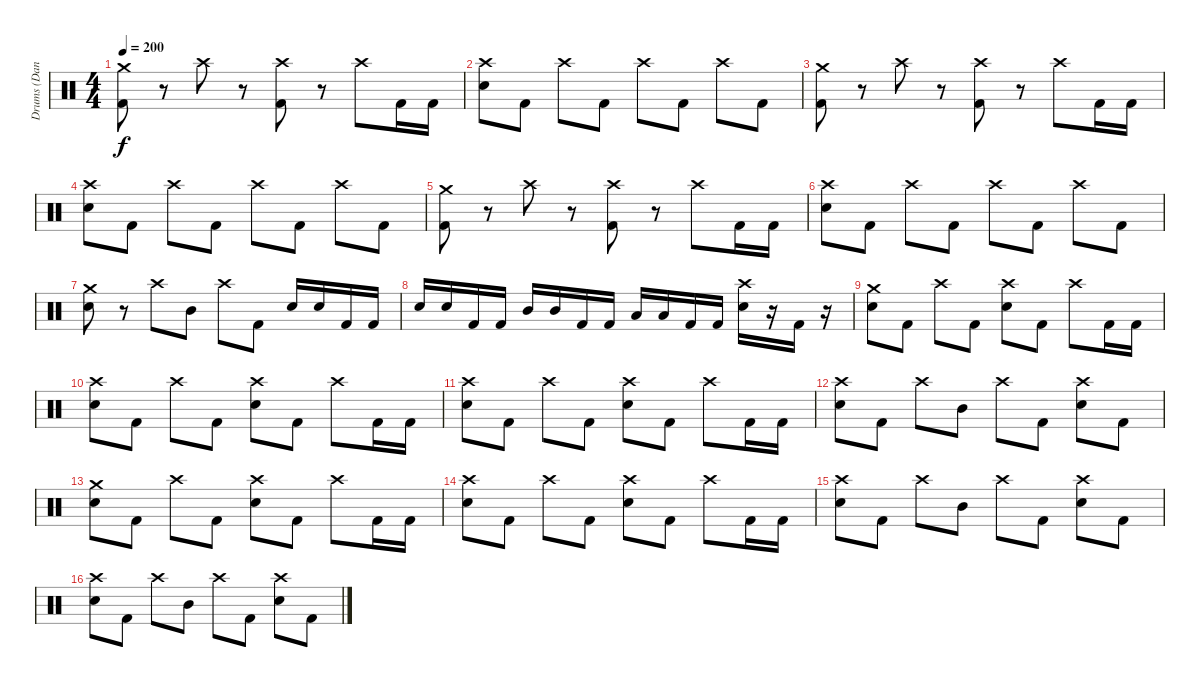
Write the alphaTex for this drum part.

\track ("Drums (Daniel)" "Drums (Dan") {instrument percussion}
\staff {score}
\articulation defaults
\ts (4 4)
\tempo 200
\clef neutral
\ks c
("Crash medium (hit)" "Kick (hit) 2").8{dy f} r.8 "Crash high (hit)".8 r.8 ("Crash high (hit)" "Kick (hit) 2").8 r.8 "Crash high (hit)".8 "Kick (hit) 2".16 "Kick (hit) 2".16 |
("Crash high (hit)" "Electric Snare (hit)").8 "Kick (hit) 2".8 "Crash high (hit)".8 "Kick (hit) 2".8 "Crash high (hit)".8 "Kick (hit) 2".8 "Crash high (hit)".8 "Kick (hit) 2".8 |
("Crash medium (hit)" "Kick (hit) 2").8 r.8 "Crash high (hit)".8 r.8 ("Crash high (hit)" "Kick (hit) 2").8 r.8 "Crash high (hit)".8 "Kick (hit) 2".16 "Kick (hit) 2".16 |
("Crash high (hit)" "Electric Snare (hit)").8 "Kick (hit) 2".8 "Crash high (hit)".8 "Kick (hit) 2".8 "Crash high (hit)".8 "Kick (hit) 2".8 "Crash high (hit)".8 "Kick (hit) 2".8 |
("Crash medium (hit)" "Kick (hit) 2").8 r.8 "Crash high (hit)".8 r.8 ("Crash high (hit)" "Kick (hit) 2").8 r.8 "Crash high (hit)".8 "Kick (hit) 2".16 "Kick (hit) 2".16 |
("Crash high (hit)" "Electric Snare (hit)").8 "Kick (hit) 2".8 "Crash high (hit)".8 "Kick (hit) 2".8 "Crash high (hit)".8 "Kick (hit) 2".8 "Crash high (hit)".8 "Kick (hit) 2".8 |
("Crash medium (hit)" "Electric Snare (hit)").8 r.8 "Crash high (hit)".8 "Mid Tom (hit)".8 "Crash high (hit)".8 "Kick (hit) 2".8 "Electric Snare (hit)".16 "Electric Snare (hit)".16 "Kick (hit) 2".16 "Kick (hit) 2".16 |
"Electric Snare (hit)".16 "Electric Snare (hit)".16 "Kick (hit) 2".16 "Kick (hit) 2".16 "Mid Tom (hit)".16 "Mid Tom (hit)".16 "Kick (hit) 2".16 "Kick (hit) 2".16 "Low Tom (hit)".16 "Low Tom (hit)".16 "Kick (hit) 2".16 "Kick (hit) 2".16 ("Crash high (hit)" "Electric Snare (hit)").16 r.16 "Kick (hit) 2".16 r.16 |
("Crash medium (hit)" "Electric Snare (hit)").8 "Kick (hit) 2".8 "Crash high (hit)".8 "Kick (hit) 2".8 ("Crash high (hit)" "Electric Snare (hit)").8 "Kick (hit) 2".8 "Crash high (hit)".8 "Kick (hit) 2".16 "Kick (hit) 2".16 |
("Crash high (hit)" "Electric Snare (hit)").8 "Kick (hit) 2".8 "Crash high (hit)".8 "Kick (hit) 2".8 ("Crash high (hit)" "Electric Snare (hit)").8 "Kick (hit) 2".8 "Crash high (hit)".8 "Kick (hit) 2".16 "Kick (hit) 2".16 |
("Crash high (hit)" "Electric Snare (hit)").8 "Kick (hit) 2".8 "Crash high (hit)".8 "Kick (hit) 2".8 ("Crash high (hit)" "Electric Snare (hit)").8 "Kick (hit) 2".8 "Crash high (hit)".8 "Kick (hit) 2".16 "Kick (hit) 2".16 |
("Crash high (hit)" "Electric Snare (hit)").8 "Kick (hit) 2".8 "Crash high (hit)".8 "Mid Tom (hit)".8 "Crash high (hit)".8 "Kick (hit) 2".8 ("Crash high (hit)" "Electric Snare (hit)").8 "Kick (hit) 2".8 |
("Crash medium (hit)" "Electric Snare (hit)").8 "Kick (hit) 2".8 "Crash high (hit)".8 "Kick (hit) 2".8 ("Crash high (hit)" "Electric Snare (hit)").8 "Kick (hit) 2".8 "Crash high (hit)".8 "Kick (hit) 2".16 "Kick (hit) 2".16 |
("Crash high (hit)" "Electric Snare (hit)").8 "Kick (hit) 2".8 "Crash high (hit)".8 "Kick (hit) 2".8 ("Crash high (hit)" "Electric Snare (hit)").8 "Kick (hit) 2".8 "Crash high (hit)".8 "Kick (hit) 2".16 "Kick (hit) 2".16 |
("Crash high (hit)" "Electric Snare (hit)").8 "Kick (hit) 2".8 "Crash high (hit)".8 "Mid Tom (hit)".8 "Crash high (hit)".8 "Kick (hit) 2".8 ("Crash high (hit)" "Electric Snare (hit)").8 "Kick (hit) 2".8 |
("Crash high (hit)" "Electric Snare (hit)").8 "Kick (hit) 2".8 "Crash high (hit)".8 "Mid Tom (hit)".8 "Crash high (hit)".8 "Kick (hit) 2".8 ("Crash high (hit)" "Electric Snare (hit)").8 "Kick (hit) 2".8
